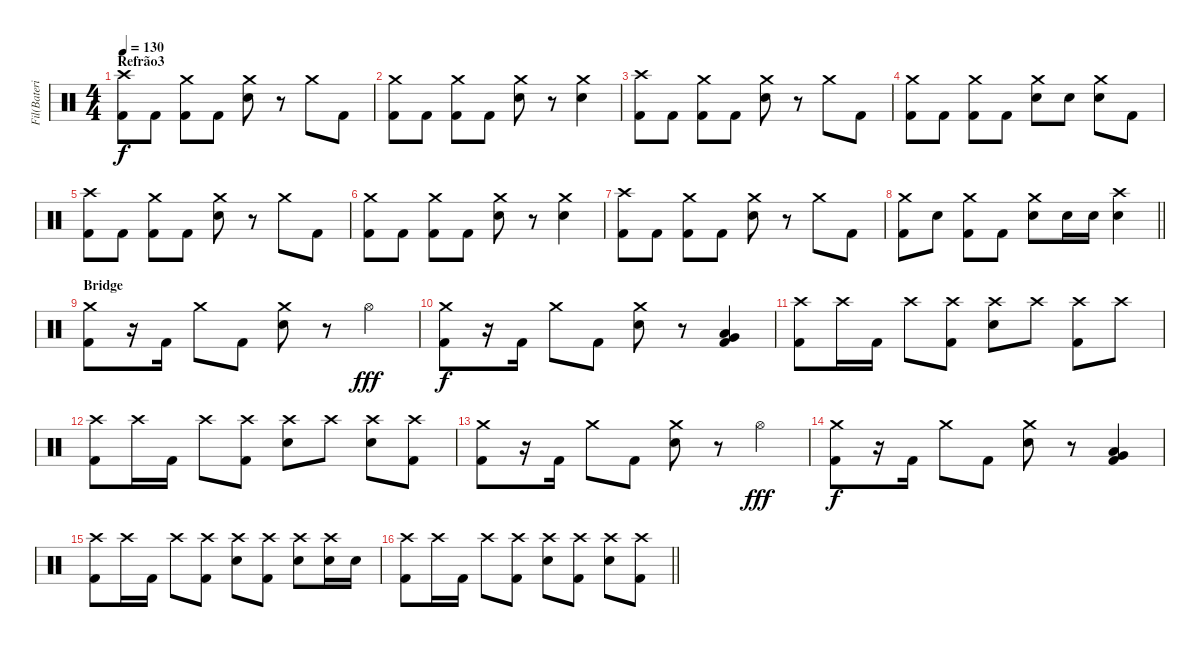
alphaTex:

\track ("Fil(Bateria)" "Fil(Bateri") {instrument percussion}
\staff {score}
\articulation defaults
\ts (4 4)
\section ("" "Refrão3")
\tempo 130
\clef neutral
\ks c
("Crash high (hit)" "Kick (hit) 2").8{dy f} "Kick (hit) 2".8 ("Crash medium (hit)" "Kick (hit) 2").8 "Kick (hit) 2".8 ("Crash medium (hit)" "Electric Snare (hit)").8 r.8 "Crash medium (hit)".8 "Kick (hit) 2".8 |
("Crash medium (hit)" "Kick (hit) 2").8 "Kick (hit) 2".8 ("Crash medium (hit)" "Kick (hit) 2").8 "Kick (hit) 2".8 ("Crash medium (hit)" "Electric Snare (hit)").8 r.8 ("Crash medium (hit)" "Electric Snare (hit)").4 |
("Crash high (hit)" "Kick (hit) 2").8 "Kick (hit) 2".8 ("Crash medium (hit)" "Kick (hit) 2").8 "Kick (hit) 2".8 ("Crash medium (hit)" "Electric Snare (hit)").8 r.8 "Crash medium (hit)".8 "Kick (hit) 2".8 |
("Crash medium (hit)" "Kick (hit) 2").8 "Kick (hit) 2".8 ("Crash medium (hit)" "Kick (hit) 2").8 "Kick (hit) 2".8 ("Crash medium (hit)" "Electric Snare (hit)").8 "Electric Snare (hit)".8 ("Crash medium (hit)" "Electric Snare (hit)").8 "Kick (hit) 2".8 |
("Crash high (hit)" "Kick (hit) 2").8 "Kick (hit) 2".8 ("Crash medium (hit)" "Kick (hit) 2").8 "Kick (hit) 2".8 ("Crash medium (hit)" "Electric Snare (hit)").8 r.8 "Crash medium (hit)".8 "Kick (hit) 2".8 |
("Crash medium (hit)" "Kick (hit) 2").8 "Kick (hit) 2".8 ("Crash medium (hit)" "Kick (hit) 2").8 "Kick (hit) 2".8 ("Crash medium (hit)" "Electric Snare (hit)").8 r.8 ("Crash medium (hit)" "Electric Snare (hit)").4 |
("Crash high (hit)" "Kick (hit) 2").8 "Kick (hit) 2".8 ("Crash medium (hit)" "Kick (hit) 2").8 "Kick (hit) 2".8 ("Crash medium (hit)" "Electric Snare (hit)").8 r.8 "Crash medium (hit)".8 "Kick (hit) 2".8 |
\barLineRight lightlight
("Crash medium (hit)" "Kick (hit) 2").8 "Electric Snare (hit)".8 ("Crash medium (hit)" "Kick (hit) 2").8 "Kick (hit) 2".8 ("Crash medium (hit)" "Electric Snare (hit)").8 "Electric Snare (hit)".16 "Electric Snare (hit)".16 ("Crash high (hit)" "Electric Snare (hit)").4 |
\section ("" "Bridge")
("Crash medium (hit)" "Kick (hit) 2").8 r.16 "Kick (hit) 2".16 "Crash medium (hit)".8 "Kick (hit) 2".8 ("Crash medium (hit)" "Electric Snare (hit)").8 r.8 "Hi-Hat (open)".4{dy fff} |
("Crash medium (hit)" "Kick (hit) 2").8{dy f} r.16 "Kick (hit) 2".16 "Crash medium (hit)".8 "Kick (hit) 2".8 ("Crash medium (hit)" "Electric Snare (hit)").8 r.8 ("Very Low Tom (hit)" "Low Floor Tom (hit)" "Kick (hit) 2").4 |
("Crash high (hit)" "Kick (hit) 2").8 "Crash high (hit)".16 "Kick (hit) 2".16 "Crash high (hit)".8 ("Crash high (hit)" "Kick (hit) 2").8 ("Crash high (hit)" "Electric Snare (hit)").8 "Crash high (hit)".8 ("Crash high (hit)" "Kick (hit) 2").8 "Crash high (hit)".8 |
("Crash high (hit)" "Kick (hit) 2").8 "Crash high (hit)".16 "Kick (hit) 2".16 "Crash high (hit)".8 ("Crash high (hit)" "Kick (hit) 2").8 ("Crash high (hit)" "Electric Snare (hit)").8 "Crash high (hit)".8 ("Crash high (hit)" "Electric Snare (hit)").8 ("Crash high (hit)" "Kick (hit) 2").8 |
("Crash medium (hit)" "Kick (hit) 2").8 r.16 "Kick (hit) 2".16 "Crash medium (hit)".8 "Kick (hit) 2".8 ("Crash medium (hit)" "Electric Snare (hit)").8 r.8 "Hi-Hat (open)".4{dy fff} |
("Crash medium (hit)" "Kick (hit) 2").8{dy f} r.16 "Kick (hit) 2".16 "Crash medium (hit)".8 "Kick (hit) 2".8 ("Crash medium (hit)" "Electric Snare (hit)").8 r.8 ("Very Low Tom (hit)" "Low Floor Tom (hit)" "Kick (hit) 2").4 |
("Crash high (hit)" "Kick (hit) 2").8 "Crash high (hit)".16 "Kick (hit) 2".16 "Crash high (hit)".8 ("Crash high (hit)" "Kick (hit) 2").8 ("Crash high (hit)" "Electric Snare (hit)").8 ("Crash high (hit)" "Kick (hit) 2").8 ("Crash high (hit)" "Electric Snare (hit)").8 ("Crash high (hit)" "Electric Snare (hit)").16 "Electric Snare (hit)".16 |
\barLineRight lightlight
("Crash high (hit)" "Kick (hit) 2").8 "Crash high (hit)".16 "Kick (hit) 2".16 "Crash high (hit)".8 ("Crash high (hit)" "Kick (hit) 2").8 ("Crash high (hit)" "Electric Snare (hit)").8 ("Crash high (hit)" "Kick (hit) 2").8 ("Crash high (hit)" "Electric Snare (hit)").8 ("Crash high (hit)" "Kick (hit) 2").8
